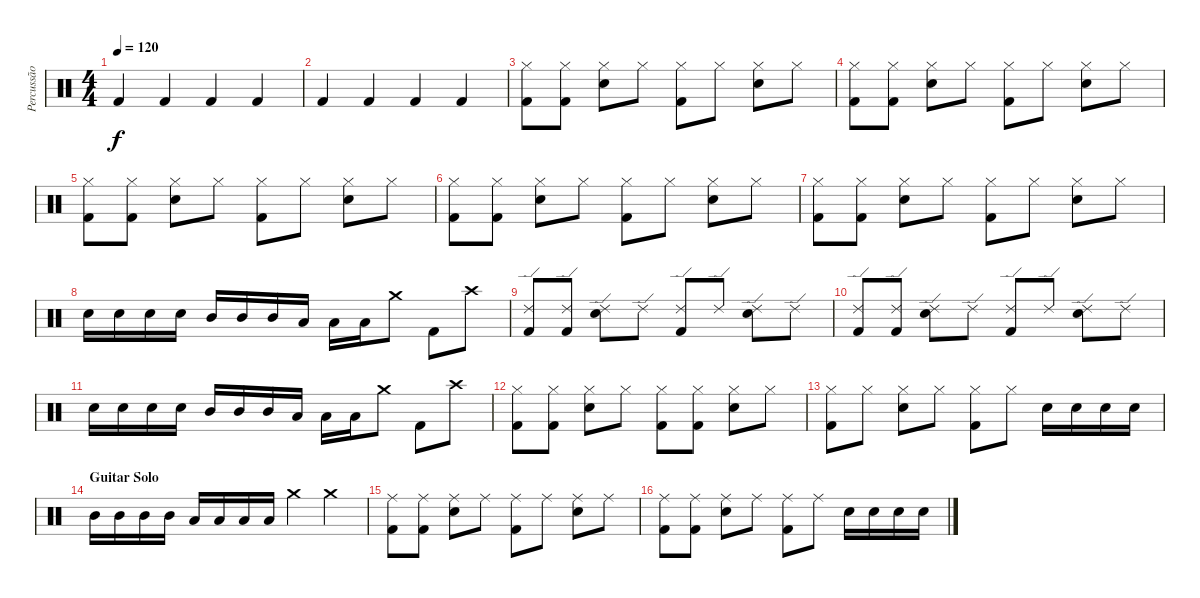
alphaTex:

\track ("Percussão" "Percussão") {instrument percussion}
\staff {score}
\articulation defaults
\ts (4 4)
\tempo 120
\clef neutral
\ks c "Kick (hit) 2".4{dy f} "Kick (hit) 2".4 "Kick (hit) 2".4 "Kick (hit) 2".4
|
"Kick (hit) 2".4 "Kick (hit) 2".4 "Kick (hit) 2".4 "Kick (hit) 2".4 |
("Kick (hit) 2" "Hi-Hat (closed)").8 ("Kick (hit) 2" "Hi-Hat (closed)").8 ("Snare (hit) 2" "Hi-Hat (closed)").8 "Hi-Hat (closed)".8 ("Kick (hit) 2" "Hi-Hat (closed)").8 "Hi-Hat (closed)".8 ("Snare (hit) 2" "Hi-Hat (closed)").8 "Hi-Hat (closed)".8 |
("Kick (hit) 2" "Hi-Hat (closed)").8 ("Kick (hit) 2" "Hi-Hat (closed)").8 ("Snare (hit) 2" "Hi-Hat (closed)").8 "Hi-Hat (closed)".8 ("Kick (hit) 2" "Hi-Hat (closed)").8 "Hi-Hat (closed)".8 ("Snare (hit) 2" "Hi-Hat (closed)").8 "Hi-Hat (closed)".8 |
("Kick (hit) 2" "Hi-Hat (closed)").8 ("Kick (hit) 2" "Hi-Hat (closed)").8 ("Snare (hit) 2" "Hi-Hat (closed)").8 "Hi-Hat (closed)".8 ("Kick (hit) 2" "Hi-Hat (closed)").8 "Hi-Hat (closed)".8 ("Snare (hit) 2" "Hi-Hat (closed)").8 "Hi-Hat (closed)".8 |
("Kick (hit) 2" "Hi-Hat (closed)").8 ("Kick (hit) 2" "Hi-Hat (closed)").8 ("Snare (hit) 2" "Hi-Hat (closed)").8 "Hi-Hat (closed)".8 ("Kick (hit) 2" "Hi-Hat (closed)").8 "Hi-Hat (closed)".8 ("Snare (hit) 2" "Hi-Hat (closed)").8 "Hi-Hat (closed)".8 |
("Kick (hit) 2" "Hi-Hat (closed)").8 ("Kick (hit) 2" "Hi-Hat (closed)").8 ("Snare (hit) 2" "Hi-Hat (closed)").8 "Hi-Hat (closed)".8 ("Kick (hit) 2" "Hi-Hat (closed)").8 "Hi-Hat (closed)".8 ("Snare (hit) 2" "Hi-Hat (closed)").8 "Hi-Hat (closed)".8 |
"Snare (hit) 2".16 "Snare (hit) 2".16 "Snare (hit) 2".16 "Snare (hit) 2".16 "Mid Tom (hit)".16 "Mid Tom (hit)".16 "Mid Tom (hit)".16 "Low Tom (hit)".16 "Low Tom (hit)".16 "Low Tom (hit)".16 "Crash medium (hit)".8 "Kick (hit) 2".8 "Crash high (hit)".8 |
("Kick (hit) 2" "Ride (edge) 2").8 ("Kick (hit) 2" "Ride (edge) 2").8 ("Snare (hit) 2" "Ride (edge) 2").8 "Ride (edge) 2".8 ("Kick (hit) 2" "Ride (edge) 2").8 "Ride (edge) 2".8 ("Snare (hit) 2" "Ride (edge) 2").8 "Ride (edge) 2".8 |
("Kick (hit) 2" "Ride (edge) 2").8 ("Kick (hit) 2" "Ride (edge) 2").8 ("Snare (hit) 2" "Ride (edge) 2").8 "Ride (edge) 2".8 ("Kick (hit) 2" "Ride (edge) 2").8 "Ride (edge) 2".8 ("Snare (hit) 2" "Ride (edge) 2").8 "Ride (edge) 2".8 |
"Snare (hit) 2".16 "Snare (hit) 2".16 "Snare (hit) 2".16 "Snare (hit) 2".16 "Mid Tom (hit)".16 "Mid Tom (hit)".16 "Mid Tom (hit)".16 "Low Tom (hit)".16 "Low Tom (hit)".16 "Low Tom (hit)".16 "Crash medium (hit)".8 "Kick (hit) 2".8 "Crash high (hit)".8 |
("Kick (hit) 2" "Hi-Hat (closed)").8 ("Kick (hit) 2" "Hi-Hat (closed)").8 ("Snare (hit) 2" "Hi-Hat (closed)").8 "Hi-Hat (closed)".8 ("Kick (hit) 2" "Hi-Hat (closed)").8 ("Kick (hit) 2" "Hi-Hat (closed)").8 ("Snare (hit) 2" "Hi-Hat (closed)").8 "Hi-Hat (closed)".8 |
("Kick (hit) 2" "Hi-Hat (closed)").8 "Hi-Hat (closed)".8 ("Snare (hit) 2" "Hi-Hat (closed)").8 "Hi-Hat (closed)".8 ("Kick (hit) 2" "Hi-Hat (closed)").8 "Hi-Hat (closed)".8 "Snare (hit) 2".16 "Snare (hit) 2".16 "Snare (hit) 2".16 "Snare (hit) 2".16 |
\section ("" "Guitar Solo")
"Mid Tom (hit)".16 "Mid Tom (hit)".16 "Mid Tom (hit)".16 "Mid Tom (hit)".16 "Low Tom (hit)".16 "Low Tom (hit)".16 "Low Tom (hit)".16 "Low Tom (hit)".16 "Crash medium (hit)".4 "Crash medium (hit)".4 |
("Kick (hit) 2" "Ride (middle)").8 ("Kick (hit) 2" "Ride (middle)").8 ("Snare (hit) 2" "Ride (middle)").8 "Ride (middle)".8 ("Kick (hit) 2" "Ride (middle)").8 "Ride (middle)".8 ("Snare (hit) 2" "Ride (middle)").8 "Ride (middle)".8 |
("Kick (hit) 2" "Ride (middle)").8 ("Kick (hit) 2" "Ride (middle)").8 ("Snare (hit) 2" "Ride (middle)").8 "Ride (middle)".8 ("Kick (hit) 2" "Ride (middle)").8 "Ride (middle)".8 "Snare (hit) 2".16 "Snare (hit) 2".16 "Snare (hit) 2".16 "Snare (hit) 2".16
